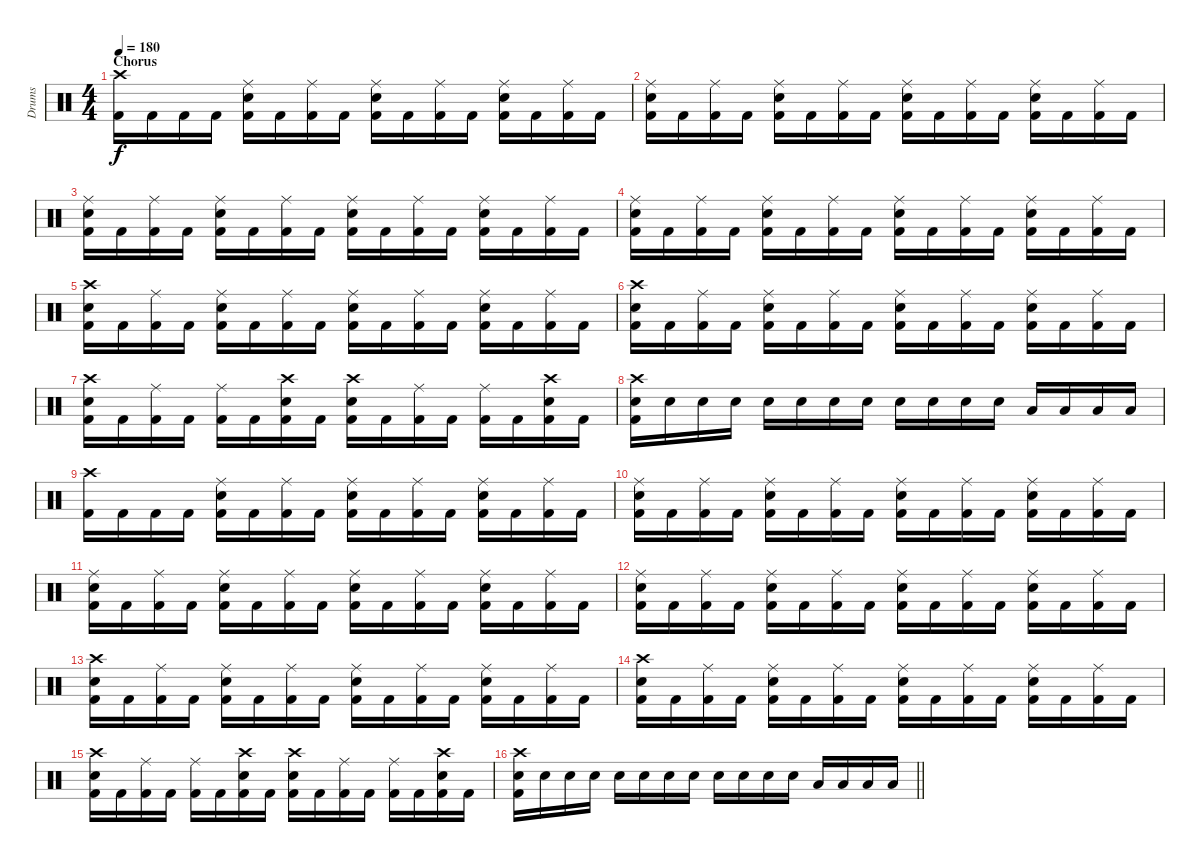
\track ("Drums" "Drums") {instrument percussion}
\staff {score}
\articulation defaults
\ts (4 4)
\section ("" "Chorus")
\tempo 180
\clef neutral
\ks c
("Crash high (hit)" "Kick (hit) 2").16{dy f} "Kick (hit) 2".16 "Kick (hit) 2".16 "Kick (hit) 2".16 ("Ride (middle)" "Electric Snare (hit)" "Kick (hit) 2").16 "Kick (hit) 2".16 ("Ride (middle)" "Kick (hit) 2").16 "Kick (hit) 2".16 ("Ride (middle)" "Electric Snare (hit)" "Kick (hit) 2").16 "Kick (hit) 2".16 ("Ride (middle)" "Kick (hit) 2").16 "Kick (hit) 2".16 ("Ride (middle)" "Electric Snare (hit)" "Kick (hit) 2").16 "Kick (hit) 2".16 ("Ride (middle)" "Kick (hit) 2").16 "Kick (hit) 2".16 |
("Ride (middle)" "Electric Snare (hit)" "Kick (hit) 2").16 "Kick (hit) 2".16 ("Ride (middle)" "Kick (hit) 2").16 "Kick (hit) 2".16 ("Ride (middle)" "Electric Snare (hit)" "Kick (hit) 2").16 "Kick (hit) 2".16 ("Ride (middle)" "Kick (hit) 2").16 "Kick (hit) 2".16 ("Ride (middle)" "Electric Snare (hit)" "Kick (hit) 2").16 "Kick (hit) 2".16 ("Ride (middle)" "Kick (hit) 2").16 "Kick (hit) 2".16 ("Ride (middle)" "Electric Snare (hit)" "Kick (hit) 2").16 "Kick (hit) 2".16 ("Ride (middle)" "Kick (hit) 2").16 "Kick (hit) 2".16 |
("Ride (middle)" "Electric Snare (hit)" "Kick (hit) 2").16 "Kick (hit) 2".16 ("Ride (middle)" "Kick (hit) 2").16 "Kick (hit) 2".16 ("Ride (middle)" "Electric Snare (hit)" "Kick (hit) 2").16 "Kick (hit) 2".16 ("Ride (middle)" "Kick (hit) 2").16 "Kick (hit) 2".16 ("Ride (middle)" "Electric Snare (hit)" "Kick (hit) 2").16 "Kick (hit) 2".16 ("Ride (middle)" "Kick (hit) 2").16 "Kick (hit) 2".16 ("Ride (middle)" "Electric Snare (hit)" "Kick (hit) 2").16 "Kick (hit) 2".16 ("Ride (middle)" "Kick (hit) 2").16 "Kick (hit) 2".16 |
("Ride (middle)" "Electric Snare (hit)" "Kick (hit) 2").16 "Kick (hit) 2".16 ("Ride (middle)" "Kick (hit) 2").16 "Kick (hit) 2".16 ("Ride (middle)" "Electric Snare (hit)" "Kick (hit) 2").16 "Kick (hit) 2".16 ("Ride (middle)" "Kick (hit) 2").16 "Kick (hit) 2".16 ("Ride (middle)" "Electric Snare (hit)" "Kick (hit) 2").16 "Kick (hit) 2".16 ("Ride (middle)" "Kick (hit) 2").16 "Kick (hit) 2".16 ("Ride (middle)" "Electric Snare (hit)" "Kick (hit) 2").16 "Kick (hit) 2".16 ("Ride (middle)" "Kick (hit) 2").16 "Kick (hit) 2".16 |
("Crash high (hit)" "Electric Snare (hit)" "Kick (hit) 2").16 "Kick (hit) 2".16 ("Ride (middle)" "Kick (hit) 2").16 "Kick (hit) 2".16 ("Ride (middle)" "Electric Snare (hit)" "Kick (hit) 2").16 "Kick (hit) 2".16 ("Ride (middle)" "Kick (hit) 2").16 "Kick (hit) 2".16 ("Ride (middle)" "Electric Snare (hit)" "Kick (hit) 2").16 "Kick (hit) 2".16 ("Ride (middle)" "Kick (hit) 2").16 "Kick (hit) 2".16 ("Ride (middle)" "Electric Snare (hit)" "Kick (hit) 2").16 "Kick (hit) 2".16 ("Ride (middle)" "Kick (hit) 2").16 "Kick (hit) 2".16 |
("Crash high (hit)" "Electric Snare (hit)" "Kick (hit) 2").16 "Kick (hit) 2".16 ("Ride (middle)" "Kick (hit) 2").16 "Kick (hit) 2".16 ("Ride (middle)" "Electric Snare (hit)" "Kick (hit) 2").16 "Kick (hit) 2".16 ("Ride (middle)" "Kick (hit) 2").16 "Kick (hit) 2".16 ("Ride (middle)" "Electric Snare (hit)" "Kick (hit) 2").16 "Kick (hit) 2".16 ("Ride (middle)" "Kick (hit) 2").16 "Kick (hit) 2".16 ("Ride (middle)" "Electric Snare (hit)" "Kick (hit) 2").16 "Kick (hit) 2".16 ("Ride (middle)" "Kick (hit) 2").16 "Kick (hit) 2".16 |
("Crash high (hit)" "Electric Snare (hit)" "Kick (hit) 2").16 "Kick (hit) 2".16 ("Ride (middle)" "Kick (hit) 2").16 "Kick (hit) 2".16 ("Ride (middle)" "Kick (hit) 2").16 "Kick (hit) 2".16 ("Crash high (hit)" "Electric Snare (hit)" "Kick (hit) 2").16 "Kick (hit) 2".16 ("Crash high (hit)" "Electric Snare (hit)" "Kick (hit) 2").16 "Kick (hit) 2".16 ("Ride (middle)" "Kick (hit) 2").16 "Kick (hit) 2".16 ("Ride (middle)" "Kick (hit) 2").16 "Kick (hit) 2".16 ("Crash high (hit)" "Electric Snare (hit)" "Kick (hit) 2").16 "Kick (hit) 2".16 |
("Crash high (hit)" "Electric Snare (hit)" "Kick (hit) 2").16 "Electric Snare (hit)".16 "Electric Snare (hit)".16 "Electric Snare (hit)".16 "Electric Snare (hit)".16 "Electric Snare (hit)".16 "Electric Snare (hit)".16 "Electric Snare (hit)".16 "Electric Snare (hit)".16 "Electric Snare (hit)".16 "Electric Snare (hit)".16 "Electric Snare (hit)".16 "Low Tom (hit)".16 "Low Tom (hit)".16 "Low Tom (hit)".16 "Low Tom (hit)".16 |
("Crash high (hit)" "Kick (hit) 2").16 "Kick (hit) 2".16 "Kick (hit) 2".16 "Kick (hit) 2".16 ("Ride (middle)" "Electric Snare (hit)" "Kick (hit) 2").16 "Kick (hit) 2".16 ("Ride (middle)" "Kick (hit) 2").16 "Kick (hit) 2".16 ("Ride (middle)" "Electric Snare (hit)" "Kick (hit) 2").16 "Kick (hit) 2".16 ("Ride (middle)" "Kick (hit) 2").16 "Kick (hit) 2".16 ("Ride (middle)" "Electric Snare (hit)" "Kick (hit) 2").16 "Kick (hit) 2".16 ("Ride (middle)" "Kick (hit) 2").16 "Kick (hit) 2".16 |
("Ride (middle)" "Electric Snare (hit)" "Kick (hit) 2").16 "Kick (hit) 2".16 ("Ride (middle)" "Kick (hit) 2").16 "Kick (hit) 2".16 ("Ride (middle)" "Electric Snare (hit)" "Kick (hit) 2").16 "Kick (hit) 2".16 ("Ride (middle)" "Kick (hit) 2").16 "Kick (hit) 2".16 ("Ride (middle)" "Electric Snare (hit)" "Kick (hit) 2").16 "Kick (hit) 2".16 ("Ride (middle)" "Kick (hit) 2").16 "Kick (hit) 2".16 ("Ride (middle)" "Electric Snare (hit)" "Kick (hit) 2").16 "Kick (hit) 2".16 ("Ride (middle)" "Kick (hit) 2").16 "Kick (hit) 2".16 |
("Ride (middle)" "Electric Snare (hit)" "Kick (hit) 2").16 "Kick (hit) 2".16 ("Ride (middle)" "Kick (hit) 2").16 "Kick (hit) 2".16 ("Ride (middle)" "Electric Snare (hit)" "Kick (hit) 2").16 "Kick (hit) 2".16 ("Ride (middle)" "Kick (hit) 2").16 "Kick (hit) 2".16 ("Ride (middle)" "Electric Snare (hit)" "Kick (hit) 2").16 "Kick (hit) 2".16 ("Ride (middle)" "Kick (hit) 2").16 "Kick (hit) 2".16 ("Ride (middle)" "Electric Snare (hit)" "Kick (hit) 2").16 "Kick (hit) 2".16 ("Ride (middle)" "Kick (hit) 2").16 "Kick (hit) 2".16 |
("Ride (middle)" "Electric Snare (hit)" "Kick (hit) 2").16 "Kick (hit) 2".16 ("Ride (middle)" "Kick (hit) 2").16 "Kick (hit) 2".16 ("Ride (middle)" "Electric Snare (hit)" "Kick (hit) 2").16 "Kick (hit) 2".16 ("Ride (middle)" "Kick (hit) 2").16 "Kick (hit) 2".16 ("Ride (middle)" "Electric Snare (hit)" "Kick (hit) 2").16 "Kick (hit) 2".16 ("Ride (middle)" "Kick (hit) 2").16 "Kick (hit) 2".16 ("Ride (middle)" "Electric Snare (hit)" "Kick (hit) 2").16 "Kick (hit) 2".16 ("Ride (middle)" "Kick (hit) 2").16 "Kick (hit) 2".16 |
("Crash high (hit)" "Electric Snare (hit)" "Kick (hit) 2").16 "Kick (hit) 2".16 ("Ride (middle)" "Kick (hit) 2").16 "Kick (hit) 2".16 ("Ride (middle)" "Electric Snare (hit)" "Kick (hit) 2").16 "Kick (hit) 2".16 ("Ride (middle)" "Kick (hit) 2").16 "Kick (hit) 2".16 ("Ride (middle)" "Electric Snare (hit)" "Kick (hit) 2").16 "Kick (hit) 2".16 ("Ride (middle)" "Kick (hit) 2").16 "Kick (hit) 2".16 ("Ride (middle)" "Electric Snare (hit)" "Kick (hit) 2").16 "Kick (hit) 2".16 ("Ride (middle)" "Kick (hit) 2").16 "Kick (hit) 2".16 |
("Crash high (hit)" "Electric Snare (hit)" "Kick (hit) 2").16 "Kick (hit) 2".16 ("Ride (middle)" "Kick (hit) 2").16 "Kick (hit) 2".16 ("Ride (middle)" "Electric Snare (hit)" "Kick (hit) 2").16 "Kick (hit) 2".16 ("Ride (middle)" "Kick (hit) 2").16 "Kick (hit) 2".16 ("Ride (middle)" "Electric Snare (hit)" "Kick (hit) 2").16 "Kick (hit) 2".16 ("Ride (middle)" "Kick (hit) 2").16 "Kick (hit) 2".16 ("Ride (middle)" "Electric Snare (hit)" "Kick (hit) 2").16 "Kick (hit) 2".16 ("Ride (middle)" "Kick (hit) 2").16 "Kick (hit) 2".16 |
("Crash high (hit)" "Electric Snare (hit)" "Kick (hit) 2").16 "Kick (hit) 2".16 ("Ride (middle)" "Kick (hit) 2").16 "Kick (hit) 2".16 ("Ride (middle)" "Kick (hit) 2").16 "Kick (hit) 2".16 ("Crash high (hit)" "Electric Snare (hit)" "Kick (hit) 2").16 "Kick (hit) 2".16 ("Crash high (hit)" "Electric Snare (hit)" "Kick (hit) 2").16 "Kick (hit) 2".16 ("Ride (middle)" "Kick (hit) 2").16 "Kick (hit) 2".16 ("Ride (middle)" "Kick (hit) 2").16 "Kick (hit) 2".16 ("Crash high (hit)" "Electric Snare (hit)" "Kick (hit) 2").16 "Kick (hit) 2".16 |
\barLineRight lightlight
("Crash high (hit)" "Electric Snare (hit)" "Kick (hit) 2").16 "Electric Snare (hit)".16 "Electric Snare (hit)".16 "Electric Snare (hit)".16 "Electric Snare (hit)".16 "Electric Snare (hit)".16 "Electric Snare (hit)".16 "Electric Snare (hit)".16 "Electric Snare (hit)".16 "Electric Snare (hit)".16 "Electric Snare (hit)".16 "Electric Snare (hit)".16 "Low Tom (hit)".16 "Low Tom (hit)".16 "Low Tom (hit)".16 "Low Tom (hit)".16
